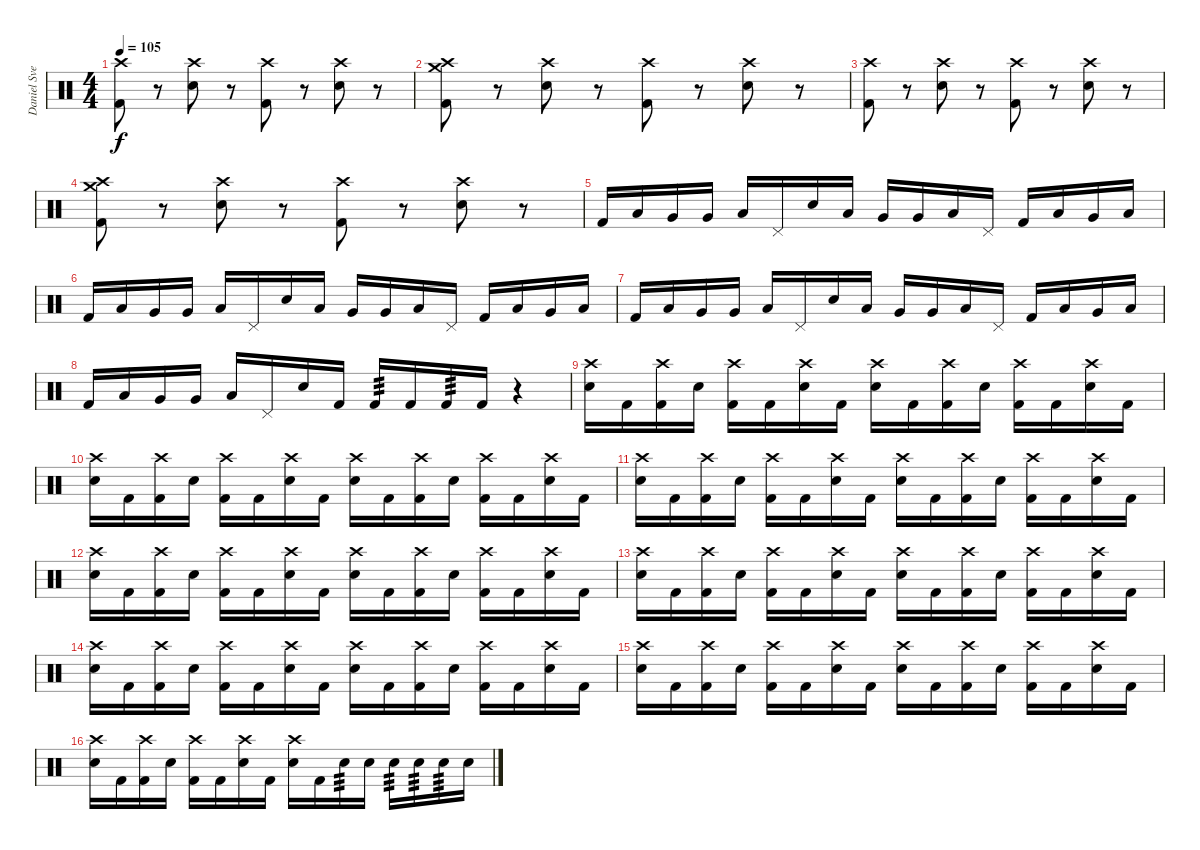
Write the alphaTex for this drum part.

\track ("Daniel Svensson" "Daniel Sve") {instrument percussion}
\staff {score}
\articulation defaults
\ts (4 4)
\tempo 105
\clef neutral
\ks c
("Crash high (hit)" "Kick (hit) 2").8{dy f} r.8 ("Crash high (hit)" "Electric Snare (hit)").8 r.8 ("Crash high (hit)" "Kick (hit) 2").8 r.8 ("Crash high (hit)" "Electric Snare (hit)").8 r.8 |
("Crash high (hit)" "Crash medium (hit)" "Kick (hit) 2").8 r.8 ("Crash high (hit)" "Electric Snare (hit)").8 r.8 ("Crash high (hit)" "Kick (hit) 2").8 r.8 ("Crash high (hit)" "Electric Snare (hit)").8 r.8 |
("Crash high (hit)" "Kick (hit) 2").8 r.8 ("Crash high (hit)" "Electric Snare (hit)").8 r.8 ("Crash high (hit)" "Kick (hit) 2").8 r.8 ("Crash high (hit)" "Electric Snare (hit)").8 r.8 |
("Crash high (hit)" "Crash medium (hit)" "Kick (hit) 2").8 r.8 ("Crash high (hit)" "Electric Snare (hit)").8 r.8 ("Crash high (hit)" "Kick (hit) 2").8 r.8 ("Crash high (hit)" "Electric Snare (hit)").8 r.8 |
"Kick (hit) 2".16 "Low Tom (hit)".16 "Very Low Tom (hit)".16 "Very Low Tom (hit)".16 "Low Floor Tom (hit)".16 "Pedal Hi-Hat (hit)".16 "Electric Snare (hit)".16 "Low Tom (hit)".16 "Very Low Tom (hit)".16 "Very Low Tom (hit)".16 "Low Floor Tom (hit)".16 "Pedal Hi-Hat (hit)".16 "Kick (hit) 2".16 "Low Tom (hit)".16 "Very Low Tom (hit)".16 "Low Floor Tom (hit)".16 |
"Kick (hit) 2".16 "Low Tom (hit)".16 "Very Low Tom (hit)".16 "Very Low Tom (hit)".16 "Low Floor Tom (hit)".16 "Pedal Hi-Hat (hit)".16 "Electric Snare (hit)".16 "Low Tom (hit)".16 "Very Low Tom (hit)".16 "Very Low Tom (hit)".16 "Low Floor Tom (hit)".16 "Pedal Hi-Hat (hit)".16 "Kick (hit) 2".16 "Low Tom (hit)".16 "Very Low Tom (hit)".16 "Low Floor Tom (hit)".16 |
"Kick (hit) 2".16 "Low Tom (hit)".16 "Very Low Tom (hit)".16 "Very Low Tom (hit)".16 "Low Floor Tom (hit)".16 "Pedal Hi-Hat (hit)".16 "Electric Snare (hit)".16 "Low Tom (hit)".16 "Very Low Tom (hit)".16 "Very Low Tom (hit)".16 "Low Floor Tom (hit)".16 "Pedal Hi-Hat (hit)".16 "Kick (hit) 2".16 "Low Tom (hit)".16 "Very Low Tom (hit)".16 "Low Floor Tom (hit)".16 |
"Kick (hit) 2".16 "Low Tom (hit)".16 "Very Low Tom (hit)".16 "Very Low Tom (hit)".16 "Low Floor Tom (hit)".16 "Pedal Hi-Hat (hit)".16 "Electric Snare (hit)".16 "Kick (hit) 2".16 "Kick (hit) 2".16{tp 3} "Kick (hit) 2".16 "Kick (hit) 2".16{tp 3} "Kick (hit) 2".16 r.4 |
("Crash high (hit)" "Electric Snare (hit)").16 "Kick (hit) 2".16 ("Crash high (hit)" "Kick (hit) 2").16 "Electric Snare (hit)".16 ("Crash high (hit)" "Kick (hit) 2").16 "Kick (hit) 2".16 ("Crash high (hit)" "Electric Snare (hit)").16 "Kick (hit) 2".16 ("Crash high (hit)" "Electric Snare (hit)").16 "Kick (hit) 2".16 ("Crash high (hit)" "Kick (hit) 2").16 "Electric Snare (hit)".16 ("Crash high (hit)" "Kick (hit) 2").16 "Kick (hit) 2".16 ("Crash high (hit)" "Electric Snare (hit)").16 "Kick (hit) 2".16 |
("Crash high (hit)" "Electric Snare (hit)").16 "Kick (hit) 2".16 ("Crash high (hit)" "Kick (hit) 2").16 "Electric Snare (hit)".16 ("Crash high (hit)" "Kick (hit) 2").16 "Kick (hit) 2".16 ("Crash high (hit)" "Electric Snare (hit)").16 "Kick (hit) 2".16 ("Crash high (hit)" "Electric Snare (hit)").16 "Kick (hit) 2".16 ("Crash high (hit)" "Kick (hit) 2").16 "Electric Snare (hit)".16 ("Crash high (hit)" "Kick (hit) 2").16 "Kick (hit) 2".16 ("Crash high (hit)" "Electric Snare (hit)").16 "Kick (hit) 2".16 |
("Crash high (hit)" "Electric Snare (hit)").16 "Kick (hit) 2".16 ("Crash high (hit)" "Kick (hit) 2").16 "Electric Snare (hit)".16 ("Crash high (hit)" "Kick (hit) 2").16 "Kick (hit) 2".16 ("Crash high (hit)" "Electric Snare (hit)").16 "Kick (hit) 2".16 ("Crash high (hit)" "Electric Snare (hit)").16 "Kick (hit) 2".16 ("Crash high (hit)" "Kick (hit) 2").16 "Electric Snare (hit)".16 ("Crash high (hit)" "Kick (hit) 2").16 "Kick (hit) 2".16 ("Crash high (hit)" "Electric Snare (hit)").16 "Kick (hit) 2".16 |
("Crash high (hit)" "Electric Snare (hit)").16 "Kick (hit) 2".16 ("Crash high (hit)" "Kick (hit) 2").16 "Electric Snare (hit)".16 ("Crash high (hit)" "Kick (hit) 2").16 "Kick (hit) 2".16 ("Crash high (hit)" "Electric Snare (hit)").16 "Kick (hit) 2".16 ("Crash high (hit)" "Electric Snare (hit)").16 "Kick (hit) 2".16 ("Crash high (hit)" "Kick (hit) 2").16 "Electric Snare (hit)".16 ("Crash high (hit)" "Kick (hit) 2").16 "Kick (hit) 2".16 ("Crash high (hit)" "Electric Snare (hit)").16 "Kick (hit) 2".16 |
("Crash high (hit)" "Electric Snare (hit)").16 "Kick (hit) 2".16 ("Crash high (hit)" "Kick (hit) 2").16 "Electric Snare (hit)".16 ("Crash high (hit)" "Kick (hit) 2").16 "Kick (hit) 2".16 ("Crash high (hit)" "Electric Snare (hit)").16 "Kick (hit) 2".16 ("Crash high (hit)" "Electric Snare (hit)").16 "Kick (hit) 2".16 ("Crash high (hit)" "Kick (hit) 2").16 "Electric Snare (hit)".16 ("Crash high (hit)" "Kick (hit) 2").16 "Kick (hit) 2".16 ("Crash high (hit)" "Electric Snare (hit)").16 "Kick (hit) 2".16 |
("Crash high (hit)" "Electric Snare (hit)").16 "Kick (hit) 2".16 ("Crash high (hit)" "Kick (hit) 2").16 "Electric Snare (hit)".16 ("Crash high (hit)" "Kick (hit) 2").16 "Kick (hit) 2".16 ("Crash high (hit)" "Electric Snare (hit)").16 "Kick (hit) 2".16 ("Crash high (hit)" "Electric Snare (hit)").16 "Kick (hit) 2".16 ("Crash high (hit)" "Kick (hit) 2").16 "Electric Snare (hit)".16 ("Crash high (hit)" "Kick (hit) 2").16 "Kick (hit) 2".16 ("Crash high (hit)" "Electric Snare (hit)").16 "Kick (hit) 2".16 |
("Crash high (hit)" "Electric Snare (hit)").16 "Kick (hit) 2".16 ("Crash high (hit)" "Kick (hit) 2").16 "Electric Snare (hit)".16 ("Crash high (hit)" "Kick (hit) 2").16 "Kick (hit) 2".16 ("Crash high (hit)" "Electric Snare (hit)").16 "Kick (hit) 2".16 ("Crash high (hit)" "Electric Snare (hit)").16 "Kick (hit) 2".16 ("Crash high (hit)" "Kick (hit) 2").16 "Electric Snare (hit)".16 ("Crash high (hit)" "Kick (hit) 2").16 "Kick (hit) 2".16 ("Crash high (hit)" "Electric Snare (hit)").16 "Kick (hit) 2".16 |
("Crash high (hit)" "Electric Snare (hit)").16 "Kick (hit) 2".16 ("Crash high (hit)" "Kick (hit) 2").16 "Electric Snare (hit)".16 ("Crash high (hit)" "Kick (hit) 2").16 "Kick (hit) 2".16 ("Crash high (hit)" "Electric Snare (hit)").16 "Kick (hit) 2".16 ("Crash high (hit)" "Electric Snare (hit)").16 "Kick (hit) 2".16 "Electric Snare (hit)".16{tp 3} "Electric Snare (hit)".16 "Electric Snare (hit)".16{tp 3} "Electric Snare (hit)".16{tp 3} "Electric Snare (hit)".16{tp 3} "Electric Snare (hit)".16
